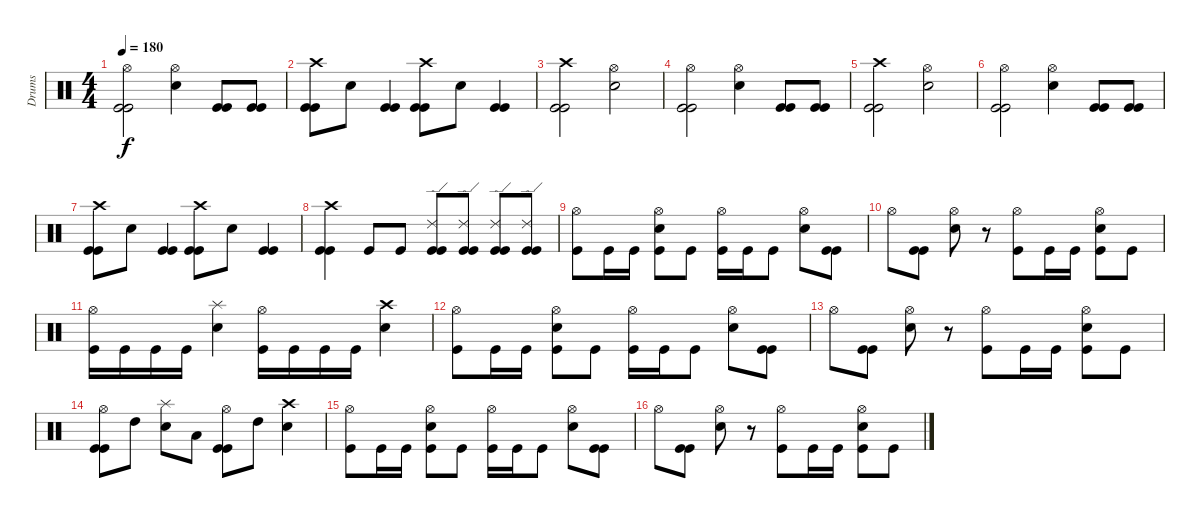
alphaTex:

\track ("Drums" "Drums") {instrument percussion}
\staff {score}
\articulation defaults
\ts (4 4)
\tempo 180
\clef neutral
\ks c
("Hi-Hat (open)" "Kick (hit)" "Kick (hit)").2{dy f} ("Hi-Hat (open)" "Snare (hit) 2").4 ("Kick (hit)" "Kick (hit)").8 ("Kick (hit)" "Kick (hit)").8 |
("Crash high (hit)" "Kick (hit)" "Kick (hit)").8 "Snare (hit) 2".8 ("Kick (hit)" "Kick (hit)").4 ("Crash high (hit)" "Kick (hit)" "Kick (hit)").8 "Snare (hit) 2".8 ("Kick (hit)" "Kick (hit)").4 |
("Crash high (hit)" "Kick (hit)" "Kick (hit)").2 ("Hi-Hat (open)" "Snare (hit) 2").2 |
("Hi-Hat (open)" "Kick (hit)" "Kick (hit)").2 ("Hi-Hat (open)" "Snare (hit) 2").4 ("Kick (hit)" "Kick (hit)").8 ("Kick (hit)" "Kick (hit)").8 |
("Crash high (hit)" "Kick (hit)" "Kick (hit)").2 ("Hi-Hat (open)" "Snare (hit) 2").2 |
("Hi-Hat (open)" "Kick (hit)" "Kick (hit)").2 ("Hi-Hat (open)" "Snare (hit) 2").4 ("Kick (hit)" "Kick (hit)").8 ("Kick (hit)" "Kick (hit)").8 |
("Crash high (hit)" "Kick (hit)" "Kick (hit)").8 "Snare (hit) 2".8 ("Kick (hit)" "Kick (hit)").4 ("Crash high (hit)" "Kick (hit)" "Kick (hit)").8 "Snare (hit) 2".8 ("Kick (hit)" "Kick (hit)").4 |
("Crash high (hit)" "Kick (hit)" "Kick (hit)").4 "Kick (hit)".8 "Kick (hit)".8 ("Ride (edge) 2" "Kick (hit)" "Kick (hit)").8 ("Ride (edge) 2" "Kick (hit)" "Kick (hit)").8 ("Ride (edge) 2" "Kick (hit)" "Kick (hit)").8 ("Ride (edge) 2" "Kick (hit)" "Kick (hit)").8 |
("Hi-Hat (open)" "Kick (hit)").8 "Kick (hit)".16 "Kick (hit)".16 ("Hi-Hat (open)" "Snare (hit) 2" "Kick (hit)").8 "Kick (hit)".8 ("Hi-Hat (open)" "Kick (hit)").16 "Kick (hit)".16 "Kick (hit)".8 ("Hi-Hat (open)" "Snare (hit) 2").8 ("Kick (hit)" "Kick (hit)").8 |
"Hi-Hat (open)".8 ("Kick (hit)" "Kick (hit)").8 ("Hi-Hat (open)" "Snare (hit) 2").8 r.8 ("Hi-Hat (open)" "Kick (hit)").8 "Kick (hit)".16 "Kick (hit)".16 ("Hi-Hat (open)" "Snare (hit) 2" "Kick (hit)").8 "Kick (hit)".8 |
("Hi-Hat (open)" "Kick (hit)").16 "Kick (hit)".16 "Kick (hit)".16 "Kick (hit)".16 ("Splash (hit)" "Snare (hit) 2").4 ("Hi-Hat (open)" "Kick (hit)").16 "Kick (hit)".16 "Kick (hit)".16 "Kick (hit)".16 ("Crash high (hit)" "Snare (hit) 2").4 |
("Hi-Hat (open)" "Kick (hit)").8 "Kick (hit)".16 "Kick (hit)".16 ("Hi-Hat (open)" "Snare (hit) 2" "Kick (hit)").8 "Kick (hit)".8 ("Hi-Hat (open)" "Kick (hit)").16 "Kick (hit)".16 "Kick (hit)".8 ("Hi-Hat (open)" "Snare (hit) 2").8 ("Kick (hit)" "Kick (hit)").8 |
"Hi-Hat (open)".8 ("Kick (hit)" "Kick (hit)").8 ("Hi-Hat (open)" "Snare (hit) 2").8 r.8 ("Hi-Hat (open)" "Kick (hit)").8 "Kick (hit)".16 "Kick (hit)".16 ("Hi-Hat (open)" "Snare (hit) 2" "Kick (hit)").8 "Kick (hit)".8 |
("Hi-Hat (open)" "Kick (hit)" "Kick (hit)").8 "High Tom (hit)".8 ("Splash (hit)" "Snare (hit) 2").8 "Low Tom (hit)".8 ("Hi-Hat (open)" "Kick (hit)" "Kick (hit)").8 "High Tom (hit)".8 ("Crash high (hit)" "Snare (hit) 2").4 |
("Hi-Hat (open)" "Kick (hit)").8 "Kick (hit)".16 "Kick (hit)".16 ("Hi-Hat (open)" "Snare (hit) 2" "Kick (hit)").8 "Kick (hit)".8 ("Hi-Hat (open)" "Kick (hit)").16 "Kick (hit)".16 "Kick (hit)".8 ("Hi-Hat (open)" "Snare (hit) 2").8 ("Kick (hit)" "Kick (hit)").8 |
"Hi-Hat (open)".8 ("Kick (hit)" "Kick (hit)").8 ("Hi-Hat (open)" "Snare (hit) 2").8 r.8 ("Hi-Hat (open)" "Kick (hit)").8 "Kick (hit)".16 "Kick (hit)".16 ("Hi-Hat (open)" "Snare (hit) 2" "Kick (hit)").8 "Kick (hit)".8
